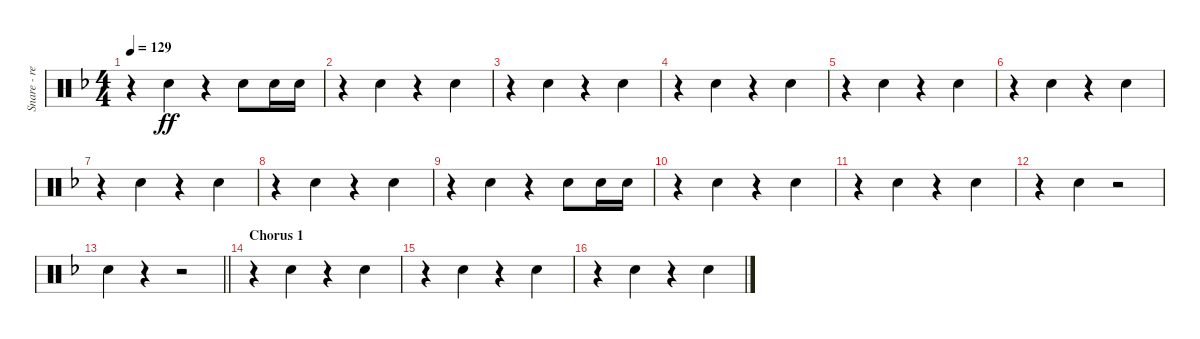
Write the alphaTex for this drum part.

\track ("Snare - reverb" "Snare - re") {instrument percussion}
\staff {score}
\articulation defaults
\ts (4 4)
\tempo 129
\clef neutral
\ks dminor
r.4{dy ff} "Snare (hit) 2".4 r.4 "Snare (hit) 2".8 "Snare (hit) 2".16 "Snare (hit) 2".16 |
r.4 "Snare (hit) 2".4 r.4 "Snare (hit) 2".4 |
r.4 "Snare (hit) 2".4 r.4 "Snare (hit) 2".4 |
r.4 "Snare (hit) 2".4 r.4 "Snare (hit) 2".4 |
r.4 "Snare (hit) 2".4 r.4 "Snare (hit) 2".4 |
r.4 "Snare (hit) 2".4 r.4 "Snare (hit) 2".4 |
r.4 "Snare (hit) 2".4 r.4 "Snare (hit) 2".4 |
r.4 "Snare (hit) 2".4 r.4 "Snare (hit) 2".4 |
r.4 "Snare (hit) 2".4 r.4 "Snare (hit) 2".8 "Snare (hit) 2".16 "Snare (hit) 2".16 |
r.4 "Snare (hit) 2".4 r.4 "Snare (hit) 2".4 |
r.4 "Snare (hit) 2".4 r.4 "Snare (hit) 2".4 |
r.4 "Snare (hit) 2".4 r.2 |
\barLineRight lightlight "Snare (hit) 2".4
r.4 r.2 |
\section ("" "Chorus 1")
r.4 "Snare (hit) 2".4 r.4 "Snare (hit) 2".4 |
r.4 "Snare (hit) 2".4 r.4 "Snare (hit) 2".4 |
r.4 "Snare (hit) 2".4 r.4 "Snare (hit) 2".4
